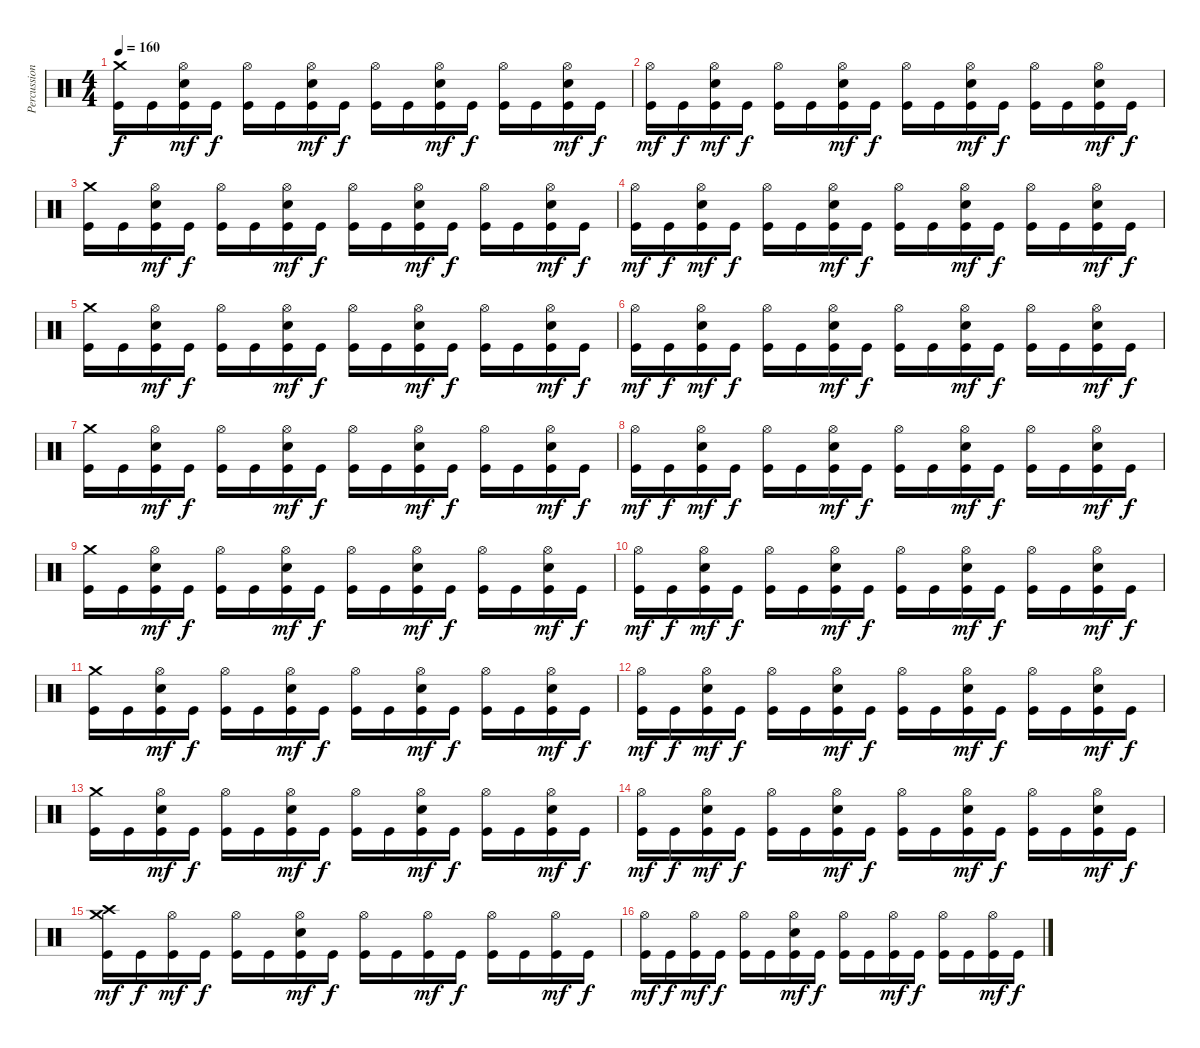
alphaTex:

\track ("Percussions" "Percussion") {instrument percussion}
\staff {score}
\articulation defaults
\ts (4 4)
\tempo 160
\clef neutral
\ks c
("Crash medium (hit)" "Kick (hit)").16{dy f} "Kick (hit)".16 ("Hi-Hat (open)" "Electric Snare (hit)" "Kick (hit)").16{dy mf} "Kick (hit)".16{dy f} ("Hi-Hat (open)" "Kick (hit)").16 "Kick (hit)".16 ("Hi-Hat (open)" "Electric Snare (hit)" "Kick (hit)").16{dy mf} "Kick (hit)".16{dy f} ("Hi-Hat (open)" "Kick (hit)").16 "Kick (hit)".16 ("Hi-Hat (open)" "Electric Snare (hit)" "Kick (hit)").16{dy mf} "Kick (hit)".16{dy f} ("Hi-Hat (open)" "Kick (hit)").16 "Kick (hit)".16 ("Hi-Hat (open)" "Electric Snare (hit)" "Kick (hit)").16{dy mf} "Kick (hit)".16{dy f} |
("Hi-Hat (open)" "Kick (hit)").16{dy mf} "Kick (hit)".16{dy f} ("Hi-Hat (open)" "Electric Snare (hit)" "Kick (hit)").16{dy mf} "Kick (hit)".16{dy f} ("Hi-Hat (open)" "Kick (hit)").16 "Kick (hit)".16 ("Hi-Hat (open)" "Electric Snare (hit)" "Kick (hit)").16{dy mf} "Kick (hit)".16{dy f} ("Hi-Hat (open)" "Kick (hit)").16 "Kick (hit)".16 ("Hi-Hat (open)" "Electric Snare (hit)" "Kick (hit)").16{dy mf} "Kick (hit)".16{dy f} ("Hi-Hat (open)" "Kick (hit)").16 "Kick (hit)".16 ("Hi-Hat (open)" "Electric Snare (hit)" "Kick (hit)").16{dy mf} "Kick (hit)".16{dy f} |
("Crash medium (hit)" "Kick (hit)").16 "Kick (hit)".16 ("Hi-Hat (open)" "Electric Snare (hit)" "Kick (hit)").16{dy mf} "Kick (hit)".16{dy f} ("Hi-Hat (open)" "Kick (hit)").16 "Kick (hit)".16 ("Hi-Hat (open)" "Electric Snare (hit)" "Kick (hit)").16{dy mf} "Kick (hit)".16{dy f} ("Hi-Hat (open)" "Kick (hit)").16 "Kick (hit)".16 ("Hi-Hat (open)" "Electric Snare (hit)" "Kick (hit)").16{dy mf} "Kick (hit)".16{dy f} ("Hi-Hat (open)" "Kick (hit)").16 "Kick (hit)".16 ("Hi-Hat (open)" "Electric Snare (hit)" "Kick (hit)").16{dy mf} "Kick (hit)".16{dy f} |
("Hi-Hat (open)" "Kick (hit)").16{dy mf} "Kick (hit)".16{dy f} ("Hi-Hat (open)" "Electric Snare (hit)" "Kick (hit)").16{dy mf} "Kick (hit)".16{dy f} ("Hi-Hat (open)" "Kick (hit)").16 "Kick (hit)".16 ("Hi-Hat (open)" "Electric Snare (hit)" "Kick (hit)").16{dy mf} "Kick (hit)".16{dy f} ("Hi-Hat (open)" "Kick (hit)").16 "Kick (hit)".16 ("Hi-Hat (open)" "Electric Snare (hit)" "Kick (hit)").16{dy mf} "Kick (hit)".16{dy f} ("Hi-Hat (open)" "Kick (hit)").16 "Kick (hit)".16 ("Hi-Hat (open)" "Electric Snare (hit)" "Kick (hit)").16{dy mf} "Kick (hit)".16{dy f} |
("Crash medium (hit)" "Kick (hit)").16 "Kick (hit)".16 ("Hi-Hat (open)" "Electric Snare (hit)" "Kick (hit)").16{dy mf} "Kick (hit)".16{dy f} ("Hi-Hat (open)" "Kick (hit)").16 "Kick (hit)".16 ("Hi-Hat (open)" "Electric Snare (hit)" "Kick (hit)").16{dy mf} "Kick (hit)".16{dy f} ("Hi-Hat (open)" "Kick (hit)").16 "Kick (hit)".16 ("Hi-Hat (open)" "Electric Snare (hit)" "Kick (hit)").16{dy mf} "Kick (hit)".16{dy f} ("Hi-Hat (open)" "Kick (hit)").16 "Kick (hit)".16 ("Hi-Hat (open)" "Electric Snare (hit)" "Kick (hit)").16{dy mf} "Kick (hit)".16{dy f} |
("Hi-Hat (open)" "Kick (hit)").16{dy mf} "Kick (hit)".16{dy f} ("Hi-Hat (open)" "Electric Snare (hit)" "Kick (hit)").16{dy mf} "Kick (hit)".16{dy f} ("Hi-Hat (open)" "Kick (hit)").16 "Kick (hit)".16 ("Hi-Hat (open)" "Electric Snare (hit)" "Kick (hit)").16{dy mf} "Kick (hit)".16{dy f} ("Hi-Hat (open)" "Kick (hit)").16 "Kick (hit)".16 ("Hi-Hat (open)" "Electric Snare (hit)" "Kick (hit)").16{dy mf} "Kick (hit)".16{dy f} ("Hi-Hat (open)" "Kick (hit)").16 "Kick (hit)".16 ("Hi-Hat (open)" "Electric Snare (hit)" "Kick (hit)").16{dy mf} "Kick (hit)".16{dy f} |
("Crash medium (hit)" "Kick (hit)").16 "Kick (hit)".16 ("Hi-Hat (open)" "Electric Snare (hit)" "Kick (hit)").16{dy mf} "Kick (hit)".16{dy f} ("Hi-Hat (open)" "Kick (hit)").16 "Kick (hit)".16 ("Hi-Hat (open)" "Electric Snare (hit)" "Kick (hit)").16{dy mf} "Kick (hit)".16{dy f} ("Hi-Hat (open)" "Kick (hit)").16 "Kick (hit)".16 ("Hi-Hat (open)" "Electric Snare (hit)" "Kick (hit)").16{dy mf} "Kick (hit)".16{dy f} ("Hi-Hat (open)" "Kick (hit)").16 "Kick (hit)".16 ("Hi-Hat (open)" "Electric Snare (hit)" "Kick (hit)").16{dy mf} "Kick (hit)".16{dy f} |
("Hi-Hat (open)" "Kick (hit)").16{dy mf} "Kick (hit)".16{dy f} ("Hi-Hat (open)" "Electric Snare (hit)" "Kick (hit)").16{dy mf} "Kick (hit)".16{dy f} ("Hi-Hat (open)" "Kick (hit)").16 "Kick (hit)".16 ("Hi-Hat (open)" "Electric Snare (hit)" "Kick (hit)").16{dy mf} "Kick (hit)".16{dy f} ("Hi-Hat (open)" "Kick (hit)").16 "Kick (hit)".16 ("Hi-Hat (open)" "Electric Snare (hit)" "Kick (hit)").16{dy mf} "Kick (hit)".16{dy f} ("Hi-Hat (open)" "Kick (hit)").16 "Kick (hit)".16 ("Hi-Hat (open)" "Electric Snare (hit)" "Kick (hit)").16{dy mf} "Kick (hit)".16{dy f} |
("Crash medium (hit)" "Kick (hit)").16 "Kick (hit)".16 ("Hi-Hat (open)" "Electric Snare (hit)" "Kick (hit)").16{dy mf} "Kick (hit)".16{dy f} ("Hi-Hat (open)" "Kick (hit)").16 "Kick (hit)".16 ("Hi-Hat (open)" "Electric Snare (hit)" "Kick (hit)").16{dy mf} "Kick (hit)".16{dy f} ("Hi-Hat (open)" "Kick (hit)").16 "Kick (hit)".16 ("Hi-Hat (open)" "Electric Snare (hit)" "Kick (hit)").16{dy mf} "Kick (hit)".16{dy f} ("Hi-Hat (open)" "Kick (hit)").16 "Kick (hit)".16 ("Hi-Hat (open)" "Electric Snare (hit)" "Kick (hit)").16{dy mf} "Kick (hit)".16{dy f} |
("Hi-Hat (open)" "Kick (hit)").16{dy mf} "Kick (hit)".16{dy f} ("Hi-Hat (open)" "Electric Snare (hit)" "Kick (hit)").16{dy mf} "Kick (hit)".16{dy f} ("Hi-Hat (open)" "Kick (hit)").16 "Kick (hit)".16 ("Hi-Hat (open)" "Electric Snare (hit)" "Kick (hit)").16{dy mf} "Kick (hit)".16{dy f} ("Hi-Hat (open)" "Kick (hit)").16 "Kick (hit)".16 ("Hi-Hat (open)" "Electric Snare (hit)" "Kick (hit)").16{dy mf} "Kick (hit)".16{dy f} ("Hi-Hat (open)" "Kick (hit)").16 "Kick (hit)".16 ("Hi-Hat (open)" "Electric Snare (hit)" "Kick (hit)").16{dy mf} "Kick (hit)".16{dy f} |
("Crash medium (hit)" "Kick (hit)").16 "Kick (hit)".16 ("Hi-Hat (open)" "Electric Snare (hit)" "Kick (hit)").16{dy mf} "Kick (hit)".16{dy f} ("Hi-Hat (open)" "Kick (hit)").16 "Kick (hit)".16 ("Hi-Hat (open)" "Electric Snare (hit)" "Kick (hit)").16{dy mf} "Kick (hit)".16{dy f} ("Hi-Hat (open)" "Kick (hit)").16 "Kick (hit)".16 ("Hi-Hat (open)" "Electric Snare (hit)" "Kick (hit)").16{dy mf} "Kick (hit)".16{dy f} ("Hi-Hat (open)" "Kick (hit)").16 "Kick (hit)".16 ("Hi-Hat (open)" "Electric Snare (hit)" "Kick (hit)").16{dy mf} "Kick (hit)".16{dy f} |
("Hi-Hat (open)" "Kick (hit)").16{dy mf} "Kick (hit)".16{dy f} ("Hi-Hat (open)" "Electric Snare (hit)" "Kick (hit)").16{dy mf} "Kick (hit)".16{dy f} ("Hi-Hat (open)" "Kick (hit)").16 "Kick (hit)".16 ("Hi-Hat (open)" "Electric Snare (hit)" "Kick (hit)").16{dy mf} "Kick (hit)".16{dy f} ("Hi-Hat (open)" "Kick (hit)").16 "Kick (hit)".16 ("Hi-Hat (open)" "Electric Snare (hit)" "Kick (hit)").16{dy mf} "Kick (hit)".16{dy f} ("Hi-Hat (open)" "Kick (hit)").16 "Kick (hit)".16 ("Hi-Hat (open)" "Electric Snare (hit)" "Kick (hit)").16{dy mf} "Kick (hit)".16{dy f} |
("Crash medium (hit)" "Kick (hit)").16 "Kick (hit)".16 ("Hi-Hat (open)" "Electric Snare (hit)" "Kick (hit)").16{dy mf} "Kick (hit)".16{dy f} ("Hi-Hat (open)" "Kick (hit)").16 "Kick (hit)".16 ("Hi-Hat (open)" "Electric Snare (hit)" "Kick (hit)").16{dy mf} "Kick (hit)".16{dy f} ("Hi-Hat (open)" "Kick (hit)").16 "Kick (hit)".16 ("Hi-Hat (open)" "Electric Snare (hit)" "Kick (hit)").16{dy mf} "Kick (hit)".16{dy f} ("Hi-Hat (open)" "Kick (hit)").16 "Kick (hit)".16 ("Hi-Hat (open)" "Electric Snare (hit)" "Kick (hit)").16{dy mf} "Kick (hit)".16{dy f} |
("Hi-Hat (open)" "Kick (hit)").16{dy mf} "Kick (hit)".16{dy f} ("Hi-Hat (open)" "Electric Snare (hit)" "Kick (hit)").16{dy mf} "Kick (hit)".16{dy f} ("Hi-Hat (open)" "Kick (hit)").16 "Kick (hit)".16 ("Hi-Hat (open)" "Electric Snare (hit)" "Kick (hit)").16{dy mf} "Kick (hit)".16{dy f} ("Hi-Hat (open)" "Kick (hit)").16 "Kick (hit)".16 ("Hi-Hat (open)" "Electric Snare (hit)" "Kick (hit)").16{dy mf} "Kick (hit)".16{dy f} ("Hi-Hat (open)" "Kick (hit)").16 "Kick (hit)".16 ("Hi-Hat (open)" "Electric Snare (hit)" "Kick (hit)").16{dy mf} "Kick (hit)".16{dy f} |
("Crash medium (hit)" "Crash high (hit)" "Kick (hit)").16{dy mf} "Kick (hit)".16{dy f} ("Hi-Hat (open)" "Kick (hit)").16{dy mf} "Kick (hit)".16{dy f} ("Hi-Hat (open)" "Kick (hit)").16 "Kick (hit)".16 ("Hi-Hat (open)" "Electric Snare (hit)" "Kick (hit)").16{dy mf} "Kick (hit)".16{dy f} ("Hi-Hat (open)" "Kick (hit)").16 "Kick (hit)".16 ("Hi-Hat (open)" "Kick (hit)").16{dy mf} "Kick (hit)".16{dy f} ("Hi-Hat (open)" "Kick (hit)").16 "Kick (hit)".16 ("Hi-Hat (open)" "Kick (hit)").16{dy mf} "Kick (hit)".16{dy f} |
("Hi-Hat (open)" "Kick (hit)").16{dy mf} "Kick (hit)".16{dy f} ("Hi-Hat (open)" "Kick (hit)").16{dy mf} "Kick (hit)".16{dy f} ("Hi-Hat (open)" "Kick (hit)").16 "Kick (hit)".16 ("Hi-Hat (open)" "Electric Snare (hit)" "Kick (hit)").16{dy mf} "Kick (hit)".16{dy f} ("Hi-Hat (open)" "Kick (hit)").16 "Kick (hit)".16 ("Hi-Hat (open)" "Kick (hit)").16{dy mf} "Kick (hit)".16{dy f} ("Hi-Hat (open)" "Kick (hit)").16 "Kick (hit)".16 ("Hi-Hat (open)" "Kick (hit)").16{dy mf} "Kick (hit)".16{dy f}
